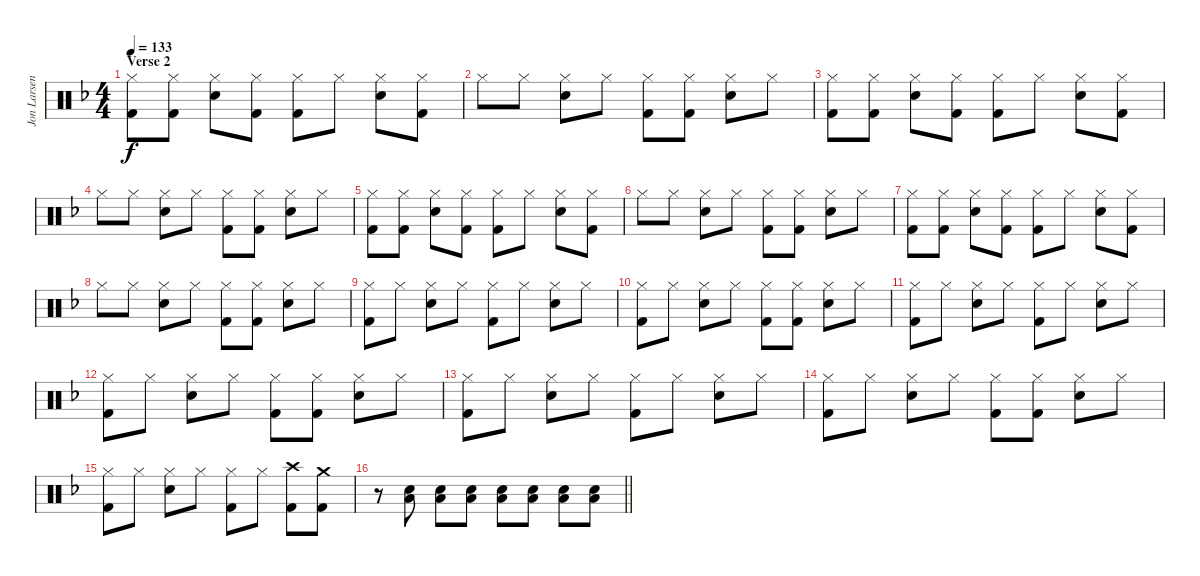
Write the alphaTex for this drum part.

\track ("Jon Larsen" "Jon Larsen") {instrument percussion}
\staff {score}
\articulation defaults
\ts (4 4)
\section ("" "Verse 2")
\tempo 133
\clef neutral
\ks f
("Hi-Hat (closed)" "Kick (hit) 2").8{dy f} ("Hi-Hat (closed)" "Kick (hit) 2").8 ("Hi-Hat (closed)" "Electric Snare (hit)").8 ("Hi-Hat (closed)" "Kick (hit) 2").8 ("Hi-Hat (closed)" "Kick (hit) 2").8 "Hi-Hat (closed)".8 ("Hi-Hat (closed)" "Electric Snare (hit)").8 ("Hi-Hat (closed)" "Kick (hit) 2").8 |
"Hi-Hat (closed)".8 "Hi-Hat (closed)".8 ("Hi-Hat (closed)" "Electric Snare (hit)").8 "Hi-Hat (closed)".8 ("Hi-Hat (closed)" "Kick (hit) 2").8 ("Hi-Hat (closed)" "Kick (hit) 2").8 ("Hi-Hat (closed)" "Electric Snare (hit)").8 "Hi-Hat (closed)".8 |
("Hi-Hat (closed)" "Kick (hit) 2").8 ("Hi-Hat (closed)" "Kick (hit) 2").8 ("Hi-Hat (closed)" "Electric Snare (hit)").8 ("Hi-Hat (closed)" "Kick (hit) 2").8 ("Hi-Hat (closed)" "Kick (hit) 2").8 "Hi-Hat (closed)".8 ("Hi-Hat (closed)" "Electric Snare (hit)").8 ("Hi-Hat (closed)" "Kick (hit) 2").8 |
"Hi-Hat (closed)".8 "Hi-Hat (closed)".8 ("Hi-Hat (closed)" "Electric Snare (hit)").8 "Hi-Hat (closed)".8 ("Hi-Hat (closed)" "Kick (hit) 2").8 ("Hi-Hat (closed)" "Kick (hit) 2").8 ("Hi-Hat (closed)" "Electric Snare (hit)").8 "Hi-Hat (closed)".8 |
("Hi-Hat (closed)" "Kick (hit) 2").8 ("Hi-Hat (closed)" "Kick (hit) 2").8 ("Hi-Hat (closed)" "Electric Snare (hit)").8 ("Hi-Hat (closed)" "Kick (hit) 2").8 ("Hi-Hat (closed)" "Kick (hit) 2").8 "Hi-Hat (closed)".8 ("Hi-Hat (closed)" "Electric Snare (hit)").8 ("Hi-Hat (closed)" "Kick (hit) 2").8 |
"Hi-Hat (closed)".8 "Hi-Hat (closed)".8 ("Hi-Hat (closed)" "Electric Snare (hit)").8 "Hi-Hat (closed)".8 ("Hi-Hat (closed)" "Kick (hit) 2").8 ("Hi-Hat (closed)" "Kick (hit) 2").8 ("Hi-Hat (closed)" "Electric Snare (hit)").8 "Hi-Hat (closed)".8 |
("Hi-Hat (closed)" "Kick (hit) 2").8 ("Hi-Hat (closed)" "Kick (hit) 2").8 ("Hi-Hat (closed)" "Electric Snare (hit)").8 ("Hi-Hat (closed)" "Kick (hit) 2").8 ("Hi-Hat (closed)" "Kick (hit) 2").8 "Hi-Hat (closed)".8 ("Hi-Hat (closed)" "Electric Snare (hit)").8 ("Hi-Hat (closed)" "Kick (hit) 2").8 |
"Hi-Hat (closed)".8 "Hi-Hat (closed)".8 ("Hi-Hat (closed)" "Electric Snare (hit)").8 "Hi-Hat (closed)".8 ("Hi-Hat (closed)" "Kick (hit) 2").8 ("Hi-Hat (closed)" "Kick (hit) 2").8 ("Hi-Hat (closed)" "Electric Snare (hit)").8 "Hi-Hat (closed)".8 |
("Hi-Hat (closed)" "Kick (hit) 2").8 "Hi-Hat (closed)".8 ("Hi-Hat (closed)" "Electric Snare (hit)").8 "Hi-Hat (closed)".8 ("Hi-Hat (closed)" "Kick (hit) 2").8 "Hi-Hat (closed)".8 ("Hi-Hat (closed)" "Electric Snare (hit)").8 "Hi-Hat (closed)".8 |
("Hi-Hat (closed)" "Kick (hit) 2").8 "Hi-Hat (closed)".8 ("Hi-Hat (closed)" "Electric Snare (hit)").8 "Hi-Hat (closed)".8 ("Hi-Hat (closed)" "Kick (hit) 2").8 ("Hi-Hat (closed)" "Kick (hit) 2").8 ("Hi-Hat (closed)" "Electric Snare (hit)").8 "Hi-Hat (closed)".8 |
("Hi-Hat (closed)" "Kick (hit) 2").8 "Hi-Hat (closed)".8 ("Hi-Hat (closed)" "Electric Snare (hit)").8 "Hi-Hat (closed)".8 ("Hi-Hat (closed)" "Kick (hit) 2").8 "Hi-Hat (closed)".8 ("Hi-Hat (closed)" "Electric Snare (hit)").8 "Hi-Hat (closed)".8 |
("Hi-Hat (closed)" "Kick (hit) 2").8 "Hi-Hat (closed)".8 ("Hi-Hat (closed)" "Electric Snare (hit)").8 "Hi-Hat (closed)".8 ("Hi-Hat (closed)" "Kick (hit) 2").8 ("Hi-Hat (closed)" "Kick (hit) 2").8 ("Hi-Hat (closed)" "Electric Snare (hit)").8 "Hi-Hat (closed)".8 |
("Hi-Hat (closed)" "Kick (hit) 2").8 "Hi-Hat (closed)".8 ("Hi-Hat (closed)" "Electric Snare (hit)").8 "Hi-Hat (closed)".8 ("Hi-Hat (closed)" "Kick (hit) 2").8 "Hi-Hat (closed)".8 ("Hi-Hat (closed)" "Electric Snare (hit)").8 "Hi-Hat (closed)".8 |
("Hi-Hat (closed)" "Kick (hit) 2").8 "Hi-Hat (closed)".8 ("Hi-Hat (closed)" "Electric Snare (hit)").8 "Hi-Hat (closed)".8 ("Hi-Hat (closed)" "Kick (hit) 2").8 ("Hi-Hat (closed)" "Kick (hit) 2").8 ("Hi-Hat (closed)" "Electric Snare (hit)").8 "Hi-Hat (closed)".8 |
("Hi-Hat (closed)" "Kick (hit) 2").8 "Hi-Hat (closed)".8 ("Hi-Hat (closed)" "Electric Snare (hit)").8 "Hi-Hat (closed)".8 ("Hi-Hat (closed)" "Kick (hit) 2").8 "Hi-Hat (closed)".8 ("Crash high (hit)" "Kick (hit) 2").8 ("Crash medium (hit)" "Kick (hit) 2").8 |
\barLineRight lightlight
r.8 ("Low Tom (hit)" "Electric Snare (hit)").8 ("Low Tom (hit)" "Electric Snare (hit)").8 ("Low Tom (hit)" "Electric Snare (hit)").8 ("Low Tom (hit)" "Electric Snare (hit)").8 ("Low Tom (hit)" "Electric Snare (hit)").8 ("Low Tom (hit)" "Electric Snare (hit)").8 ("Low Tom (hit)" "Electric Snare (hit)").8
